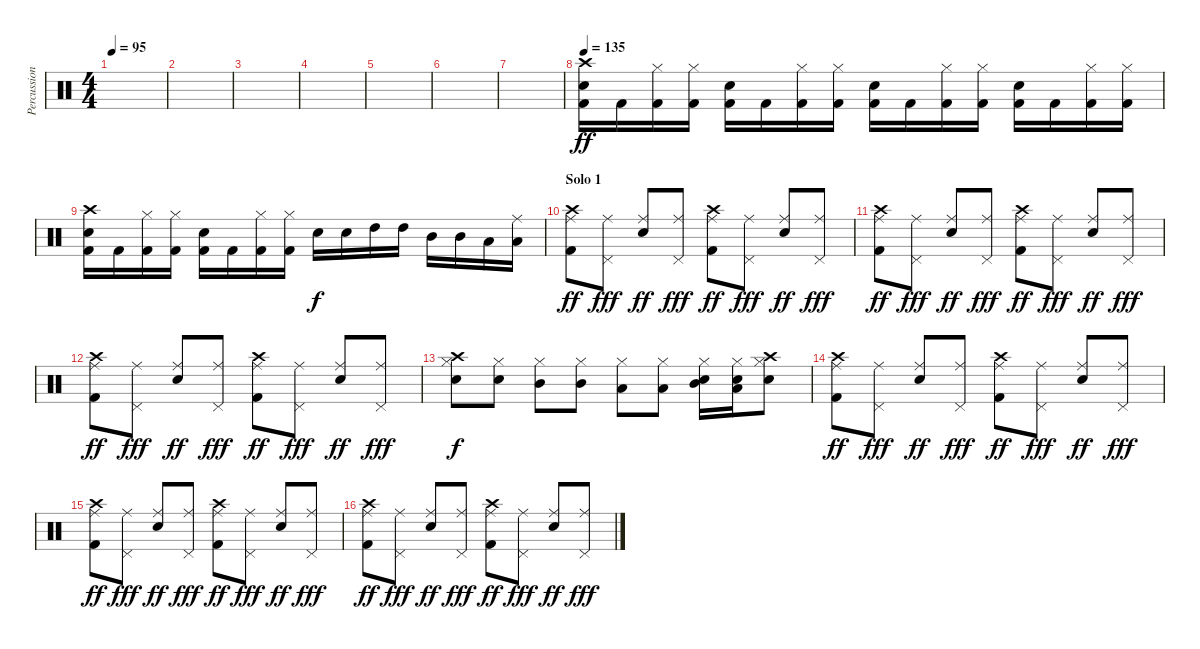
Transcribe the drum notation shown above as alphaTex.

\track ("Percussion" "Percussion") {instrument percussion}
\staff {score}
\articulation defaults
\ts (4 4)
\tempo 95
\clef neutral
\ks c
|
|
|
|
|
|
|
\tempo 135
("Crash high (hit)" "Electric Snare (hit)" "Kick (hit) 2").16{dy ff} "Kick (hit) 2".16 ("Hi-Hat (closed)" "Kick (hit) 2").16 ("Hi-Hat (closed)" "Kick (hit) 2").16 ("Electric Snare (hit)" "Kick (hit) 2").16 "Kick (hit) 2".16 ("Hi-Hat (closed)" "Kick (hit) 2").16 ("Hi-Hat (closed)" "Kick (hit) 2").16 ("Electric Snare (hit)" "Kick (hit) 2").16 "Kick (hit) 2".16 ("Hi-Hat (closed)" "Kick (hit) 2").16 ("Hi-Hat (closed)" "Kick (hit) 2").16 ("Electric Snare (hit)" "Kick (hit) 2").16 "Kick (hit) 2".16 ("Hi-Hat (closed)" "Kick (hit) 2").16 ("Hi-Hat (closed)" "Kick (hit) 2").16 |
("Crash high (hit)" "Electric Snare (hit)" "Kick (hit) 2").16 "Kick (hit) 2".16 ("Hi-Hat (closed)" "Kick (hit) 2").16 ("Hi-Hat (closed)" "Kick (hit) 2").16 ("Electric Snare (hit)" "Kick (hit) 2").16 "Kick (hit) 2".16 ("Hi-Hat (closed)" "Kick (hit) 2").16 ("Hi-Hat (closed)" "Kick (hit) 2").16 "Electric Snare (hit)".16{dy f} "Electric Snare (hit)".16 "High Tom (hit)".16 "High Tom (hit)".16 "Mid Tom (hit)".16 "Mid Tom (hit)".16 "Low Tom (hit)".16 ("Ride (middle)" "Low Tom (hit)").16 |
\section ("" "Solo 1")
("Crash high (hit)" "Ride (middle)" "Kick (hit) 2").8{dy ff} ("Ride (middle)" "Pedal Hi-Hat (hit)").8{dy fff} ("Ride (middle)" "Electric Snare (hit)").8{dy ff} ("Ride (middle)" "Pedal Hi-Hat (hit)").8{dy fff} ("Crash high (hit)" "Ride (middle)" "Kick (hit) 2").8{dy ff} ("Ride (middle)" "Pedal Hi-Hat (hit)").8{dy fff} ("Ride (middle)" "Electric Snare (hit)").8{dy ff} ("Ride (middle)" "Pedal Hi-Hat (hit)").8{dy fff} |
("Crash high (hit)" "Ride (middle)" "Kick (hit) 2").8{dy ff} ("Ride (middle)" "Pedal Hi-Hat (hit)").8{dy fff} ("Ride (middle)" "Electric Snare (hit)").8{dy ff} ("Ride (middle)" "Pedal Hi-Hat (hit)").8{dy fff} ("Crash high (hit)" "Ride (middle)" "Kick (hit) 2").8{dy ff} ("Ride (middle)" "Pedal Hi-Hat (hit)").8{dy fff} ("Ride (middle)" "Electric Snare (hit)").8{dy ff} ("Ride (middle)" "Pedal Hi-Hat (hit)").8{dy fff} |
("Crash high (hit)" "Ride (middle)" "Kick (hit) 2").8{dy ff} ("Ride (middle)" "Pedal Hi-Hat (hit)").8{dy fff} ("Ride (middle)" "Electric Snare (hit)").8{dy ff} ("Ride (middle)" "Pedal Hi-Hat (hit)").8{dy fff} ("Crash high (hit)" "Ride (middle)" "Kick (hit) 2").8{dy ff} ("Ride (middle)" "Pedal Hi-Hat (hit)").8{dy fff} ("Ride (middle)" "Electric Snare (hit)").8{dy ff} ("Ride (middle)" "Pedal Hi-Hat (hit)").8{dy fff} |
("Hi-Hat (closed)" "Crash high (hit)" "Electric Snare (hit)").8{dy f} ("Hi-Hat (closed)" "Electric Snare (hit)").8 ("Hi-Hat (closed)" "Mid Tom (hit)").8 ("Hi-Hat (closed)" "Mid Tom (hit)").8 ("Hi-Hat (closed)" "Low Tom (hit)").8 ("Hi-Hat (closed)" "Low Tom (hit)").8 ("Hi-Hat (closed)" "Mid Tom (hit)" "Electric Snare (hit)").16 ("Hi-Hat (closed)" "Low Tom (hit)" "Electric Snare (hit)").16 ("Hi-Hat (closed)" "Crash high (hit)" "Electric Snare (hit)").8 |
("Crash high (hit)" "Ride (middle)" "Kick (hit) 2").8{dy ff} ("Ride (middle)" "Pedal Hi-Hat (hit)").8{dy fff} ("Ride (middle)" "Electric Snare (hit)").8{dy ff} ("Ride (middle)" "Pedal Hi-Hat (hit)").8{dy fff} ("Crash high (hit)" "Ride (middle)" "Kick (hit) 2").8{dy ff} ("Ride (middle)" "Pedal Hi-Hat (hit)").8{dy fff} ("Ride (middle)" "Electric Snare (hit)").8{dy ff} ("Ride (middle)" "Pedal Hi-Hat (hit)").8{dy fff} |
("Crash high (hit)" "Ride (middle)" "Kick (hit) 2").8{dy ff} ("Ride (middle)" "Pedal Hi-Hat (hit)").8{dy fff} ("Ride (middle)" "Electric Snare (hit)").8{dy ff} ("Ride (middle)" "Pedal Hi-Hat (hit)").8{dy fff} ("Crash high (hit)" "Ride (middle)" "Kick (hit) 2").8{dy ff} ("Ride (middle)" "Pedal Hi-Hat (hit)").8{dy fff} ("Ride (middle)" "Electric Snare (hit)").8{dy ff} ("Ride (middle)" "Pedal Hi-Hat (hit)").8{dy fff} |
("Crash high (hit)" "Ride (middle)" "Kick (hit) 2").8{dy ff} ("Ride (middle)" "Pedal Hi-Hat (hit)").8{dy fff} ("Ride (middle)" "Electric Snare (hit)").8{dy ff} ("Ride (middle)" "Pedal Hi-Hat (hit)").8{dy fff} ("Crash high (hit)" "Ride (middle)" "Kick (hit) 2").8{dy ff} ("Ride (middle)" "Pedal Hi-Hat (hit)").8{dy fff} ("Ride (middle)" "Electric Snare (hit)").8{dy ff} ("Ride (middle)" "Pedal Hi-Hat (hit)").8{dy fff}
